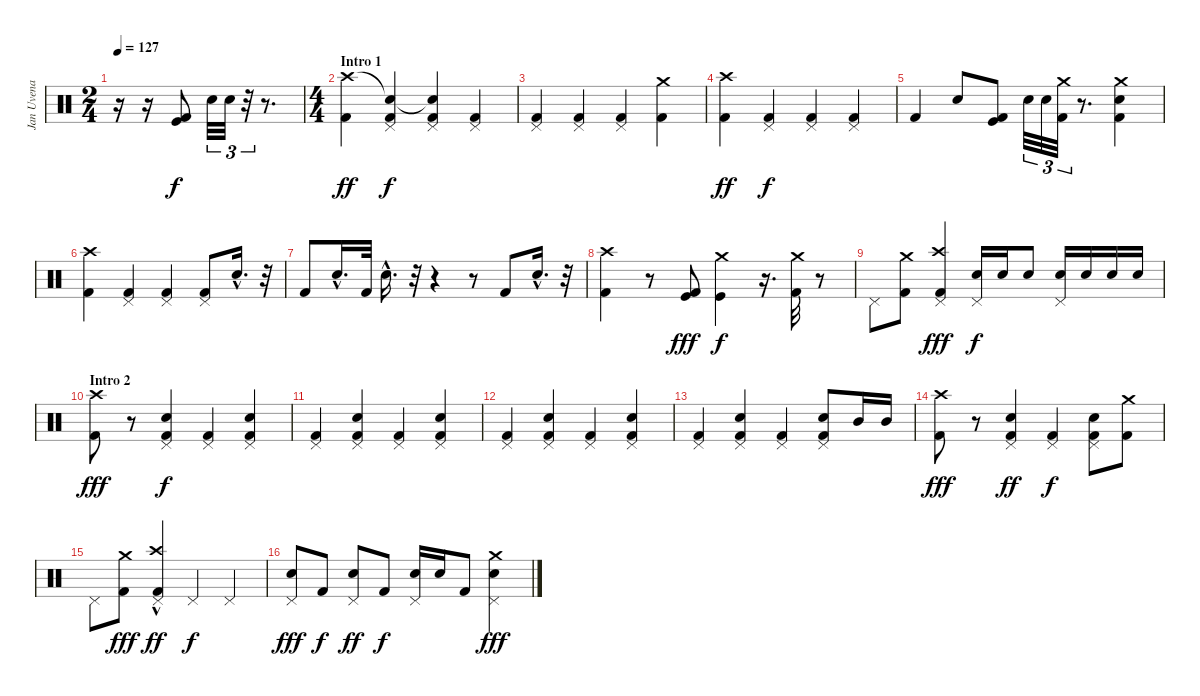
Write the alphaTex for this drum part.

\track ("Jan Uvena" "Jan Uvena") {instrument percussion}
\staff {score}
\articulation defaults
\ts (2 4)
\tempo 127
\clef neutral
\ks c
r.16{dy f} r.16 ("Kick (hit)" "Kick (hit) 2").8 "Snare (hit) 2".32{tu (3 2)} "Snare (hit) 2".32{tu (3 2)} r.32{tu (3 2)} r.8{d} |
\ts (4 4)
\section ("" "Intro 1")
("Crash high (hit)" "Kick (hit) 2").4{dy ff} ("Snare (hit)"{t} "Pedal Hi-Hat (hit)" "Kick (hit) 2").4{dy f} ("Snare (hit)"{t} "Pedal Hi-Hat (hit)" "Kick (hit) 2").4 ("Pedal Hi-Hat (hit)" "Kick (hit) 2").4 |
("Pedal Hi-Hat (hit)" "Kick (hit) 2").4 ("Pedal Hi-Hat (hit)" "Kick (hit) 2").4 ("Pedal Hi-Hat (hit)" "Kick (hit) 2").4 ("Crash medium (hit)" "Kick (hit) 2").4 |
("Crash high (hit)" "Kick (hit) 2").4{dy ff} ("Pedal Hi-Hat (hit)" "Kick (hit) 2").4{dy f} ("Pedal Hi-Hat (hit)" "Kick (hit) 2").4 ("Pedal Hi-Hat (hit)" "Kick (hit) 2").4 |
"Kick (hit) 2".4 "Snare (hit) 2".8 ("Kick (hit)" "Kick (hit) 2").8 "Snare (hit) 2".32{tu (3 2)} "Snare (hit) 2".32{tu (3 2)} ("Crash medium (hit)" "Kick (hit) 2").32{tu (3 2)} r.8{d} ("Crash medium (hit)" "Snare (hit) 2" "Kick (hit) 2").4 |
("Crash high (hit)" "Kick (hit) 2").4 ("Pedal Hi-Hat (hit)" "Kick (hit) 2").4 ("Pedal Hi-Hat (hit)" "Kick (hit) 2").4 ("Pedal Hi-Hat (hit)" "Kick (hit) 2").8 "Snare (hit) 2"{hac}.16{d} r.32 |
"Kick (hit) 2".8 "Snare (hit) 2"{hac}.16{d} "Kick (hit) 2".32 "Snare (hit) 2"{hac}.16{d} r.32 r.4 r.8 "Kick (hit) 2".8 "Snare (hit) 2"{hac}.16{d} r.32 |
("Crash high (hit)" "Kick (hit) 2").4 r.8 ("Kick (hit)" "Kick (hit) 2").8{dy fff} ("Crash medium (hit)" "Kick (hit)").4{dy f} r.16{d} ("Crash medium (hit)" "Kick (hit) 2").32 r.8 |
"Pedal Hi-Hat (hit)".8 ("Crash medium (hit)" "Kick (hit) 2").8 ("Crash high (hit)" "Pedal Hi-Hat (hit)" "Kick (hit) 2").4{dy fff} ("Pedal Hi-Hat (hit)" "Snare (hit) 2").16{dy f} "Snare (hit) 2".16 "Snare (hit) 2".8 ("Pedal Hi-Hat (hit)" "Snare (hit) 2").16 "Snare (hit) 2".16 "Snare (hit) 2".16 "Snare (hit) 2".16 |
\section ("" "Intro 2")
("Crash high (hit)" "Kick (hit) 2").8{dy fff} r.8 ("Pedal Hi-Hat (hit)" "Snare (hit) 2" "Kick (hit) 2").4{dy f} ("Pedal Hi-Hat (hit)" "Kick (hit) 2").4 ("Pedal Hi-Hat (hit)" "Snare (hit) 2" "Kick (hit) 2").4 |
("Pedal Hi-Hat (hit)" "Kick (hit) 2").4 ("Pedal Hi-Hat (hit)" "Snare (hit) 2" "Kick (hit) 2").4 ("Pedal Hi-Hat (hit)" "Kick (hit) 2").4 ("Pedal Hi-Hat (hit)" "Snare (hit) 2" "Kick (hit) 2").4 |
("Pedal Hi-Hat (hit)" "Kick (hit) 2").4 ("Pedal Hi-Hat (hit)" "Snare (hit) 2" "Kick (hit) 2").4 ("Pedal Hi-Hat (hit)" "Kick (hit) 2").4 ("Pedal Hi-Hat (hit)" "Snare (hit) 2" "Kick (hit) 2").4 |
("Pedal Hi-Hat (hit)" "Kick (hit) 2").4 ("Pedal Hi-Hat (hit)" "Snare (hit) 2" "Kick (hit) 2").4 ("Pedal Hi-Hat (hit)" "Kick (hit) 2").4 ("Pedal Hi-Hat (hit)" "Snare (hit) 2" "Kick (hit) 2").8 "Mid Tom (hit)".16 "Mid Tom (hit)".16 |
("Crash high (hit)" "Kick (hit) 2").8{dy fff} r.8 ("Pedal Hi-Hat (hit)" "Snare (hit) 2" "Kick (hit) 2").4{dy ff} ("Pedal Hi-Hat (hit)" "Kick (hit) 2").4{dy f} ("Pedal Hi-Hat (hit)" "Snare (hit) 2" "Kick (hit) 2").8 ("Crash medium (hit)" "Kick (hit) 2").8 |
"Pedal Hi-Hat (hit)".8 ("Crash medium (hit)" "Kick (hit) 2").8{dy fff} ("Crash high (hit)"{hac} "Pedal Hi-Hat (hit)" "Kick (hit) 2").4{dy ff} "Pedal Hi-Hat (hit)".4{dy f} "Pedal Hi-Hat (hit)".4 |
("Pedal Hi-Hat (hit)" "Snare (hit) 2").8{dy fff} "Kick (hit) 2".8{dy f} ("Pedal Hi-Hat (hit)" "Snare (hit) 2").8{dy ff} "Kick (hit) 2".8{dy f} ("Pedal Hi-Hat (hit)" "Snare (hit) 2").16 "Snare (hit) 2".16 "Kick (hit) 2".8 ("Crash medium (hit)" "Pedal Hi-Hat (hit)" "Snare (hit) 2").4{dy fff}
